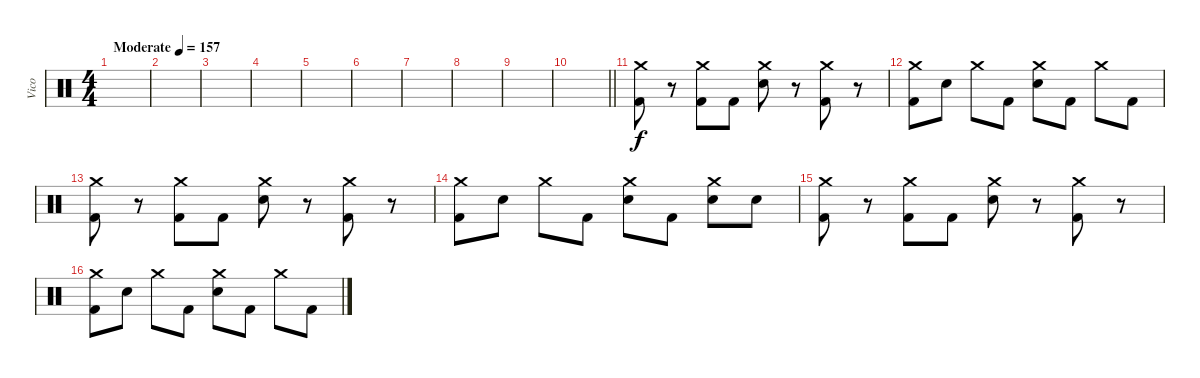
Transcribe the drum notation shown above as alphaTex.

\track ("Vico" "Vico") {instrument percussion}
\staff {score}
\articulation defaults
\ts (4 4)
\tempo (157 "Moderate")
\clef neutral
\ks c
|
|
|
|
|
|
|
|
|
\barLineRight lightlight
|
("Crash medium (hit)" "Kick (hit) 2").8 r.8 ("Crash medium (hit)" "Kick (hit) 2").8 "Kick (hit) 2".8 ("Crash medium (hit)" "Electric Snare (hit)").8 r.8 ("Crash medium (hit)" "Kick (hit) 2").8 r.8 |
("Crash medium (hit)" "Kick (hit) 2").8 "Electric Snare (hit)".8 "Crash medium (hit)".8 "Kick (hit) 2".8 ("Crash medium (hit)" "Electric Snare (hit)").8 "Kick (hit) 2".8 "Crash medium (hit)".8 "Kick (hit) 2".8 |
("Crash medium (hit)" "Kick (hit) 2").8 r.8 ("Crash medium (hit)" "Kick (hit) 2").8 "Kick (hit) 2".8 ("Crash medium (hit)" "Electric Snare (hit)").8 r.8 ("Crash medium (hit)" "Kick (hit) 2").8 r.8 |
("Crash medium (hit)" "Kick (hit) 2").8 "Electric Snare (hit)".8 "Crash medium (hit)".8 "Kick (hit) 2".8 ("Crash medium (hit)" "Electric Snare (hit)").8 "Kick (hit) 2".8 ("Crash medium (hit)" "Electric Snare (hit)").8 "Electric Snare (hit)".8 |
("Crash medium (hit)" "Kick (hit) 2").8 r.8 ("Crash medium (hit)" "Kick (hit) 2").8 "Kick (hit) 2".8 ("Crash medium (hit)" "Electric Snare (hit)").8 r.8 ("Crash medium (hit)" "Kick (hit) 2").8 r.8 |
("Crash medium (hit)" "Kick (hit) 2").8 "Electric Snare (hit)".8 "Crash medium (hit)".8 "Kick (hit) 2".8 ("Crash medium (hit)" "Electric Snare (hit)").8 "Kick (hit) 2".8 "Crash medium (hit)".8 "Kick (hit) 2".8
